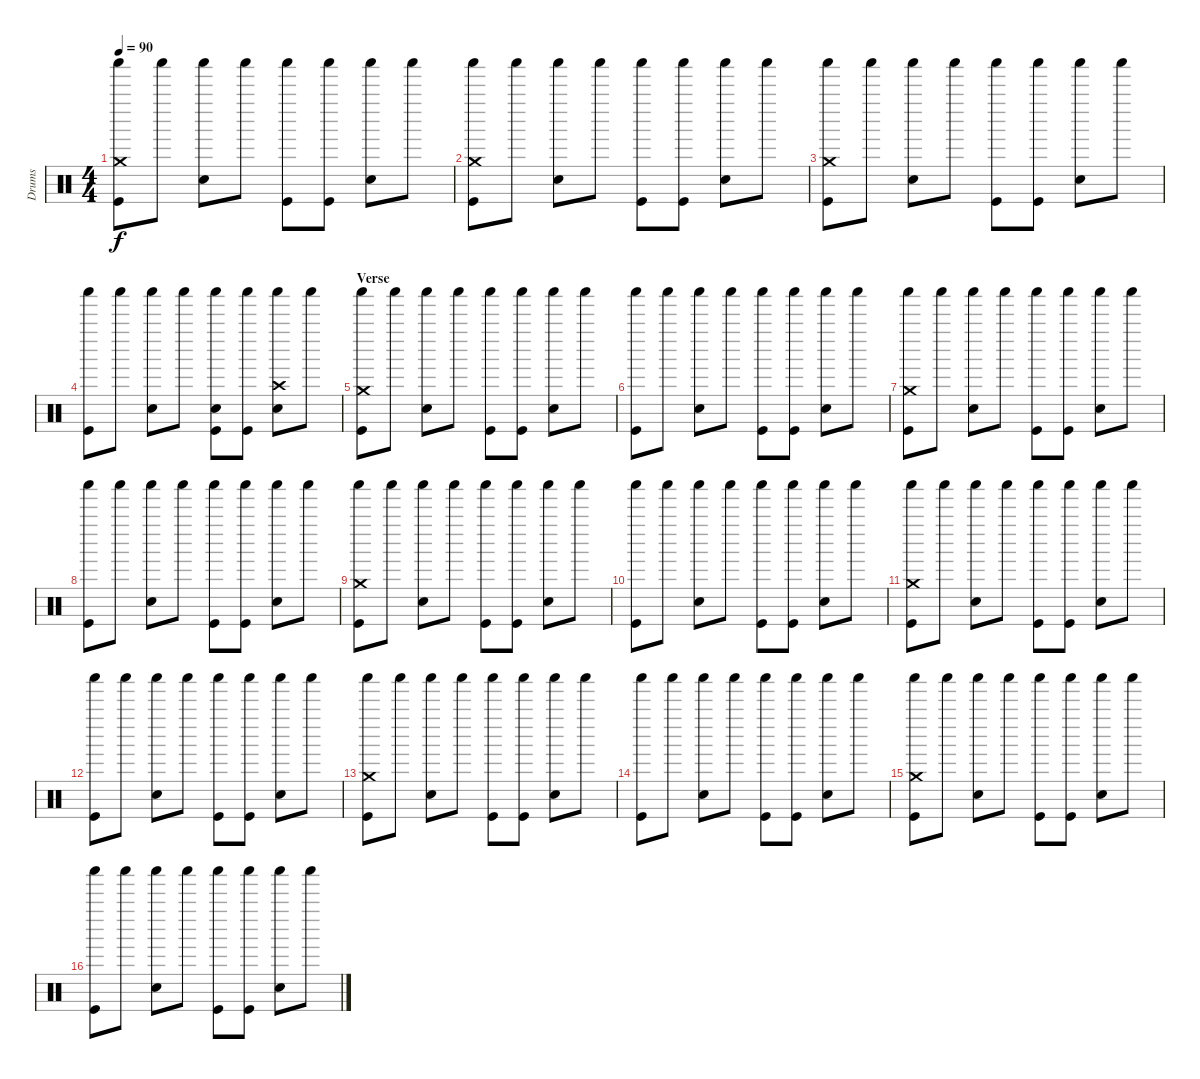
\track ("Drums" "Drums") {instrument percussion}
\staff {score}
\articulation defaults
\ts (4 4)
\tempo 90
\clef neutral
\ks c
("Shaker (hit)" "Crash medium (hit)" "Kick (hit)").8{dy f} "Shaker (hit)".8 ("Shaker (hit)" "Snare (hit) 2").8 "Shaker (hit)".8 ("Shaker (hit)" "Kick (hit)").8 ("Shaker (hit)" "Kick (hit)").8 ("Shaker (hit)" "Snare (hit) 2").8 "Shaker (hit)".8 |
("Shaker (hit)" "Crash medium (hit)" "Kick (hit)").8 "Shaker (hit)".8 ("Shaker (hit)" "Snare (hit) 2").8 "Shaker (hit)".8 ("Shaker (hit)" "Kick (hit)").8 ("Shaker (hit)" "Kick (hit)").8 ("Shaker (hit)" "Snare (hit) 2").8 "Shaker (hit)".8 |
("Shaker (hit)" "Crash medium (hit)" "Kick (hit)").8 "Shaker (hit)".8 ("Shaker (hit)" "Snare (hit) 2").8 "Shaker (hit)".8 ("Shaker (hit)" "Kick (hit)").8 ("Shaker (hit)" "Kick (hit)").8 ("Shaker (hit)" "Snare (hit) 2").8 "Shaker (hit)".8 |
("Shaker (hit)" "Kick (hit)").8 "Shaker (hit)".8 ("Shaker (hit)" "Snare (hit) 2").8 "Shaker (hit)".8 ("Shaker (hit)" "Snare (hit) 2" "Kick (hit)").8 ("Shaker (hit)" "Kick (hit)").8 ("Shaker (hit)" "Crash high (hit)" "Snare (hit) 2").8 "Shaker (hit)".8 |
\section ("" "Verse")
("Shaker (hit)" "Crash medium (hit)" "Kick (hit)").8 "Shaker (hit)".8 ("Shaker (hit)" "Snare (hit) 2").8 "Shaker (hit)".8 ("Shaker (hit)" "Kick (hit)").8 ("Shaker (hit)" "Kick (hit)").8 ("Shaker (hit)" "Snare (hit) 2").8 "Shaker (hit)".8 |
("Shaker (hit)" "Kick (hit)").8 "Shaker (hit)".8 ("Shaker (hit)" "Snare (hit) 2").8 "Shaker (hit)".8 ("Shaker (hit)" "Kick (hit)").8 ("Shaker (hit)" "Kick (hit)").8 ("Shaker (hit)" "Snare (hit) 2").8 "Shaker (hit)".8 |
("Shaker (hit)" "Crash medium (hit)" "Kick (hit)").8 "Shaker (hit)".8 ("Shaker (hit)" "Snare (hit) 2").8 "Shaker (hit)".8 ("Shaker (hit)" "Kick (hit)").8 ("Shaker (hit)" "Kick (hit)").8 ("Shaker (hit)" "Snare (hit) 2").8 "Shaker (hit)".8 |
("Shaker (hit)" "Kick (hit)").8 "Shaker (hit)".8 ("Shaker (hit)" "Snare (hit) 2").8 "Shaker (hit)".8 ("Shaker (hit)" "Kick (hit)").8 ("Shaker (hit)" "Kick (hit)").8 ("Shaker (hit)" "Snare (hit) 2").8 "Shaker (hit)".8 |
("Shaker (hit)" "Crash medium (hit)" "Kick (hit)").8 "Shaker (hit)".8 ("Shaker (hit)" "Snare (hit) 2").8 "Shaker (hit)".8 ("Shaker (hit)" "Kick (hit)").8 ("Shaker (hit)" "Kick (hit)").8 ("Shaker (hit)" "Snare (hit) 2").8 "Shaker (hit)".8 |
("Shaker (hit)" "Kick (hit)").8 "Shaker (hit)".8 ("Shaker (hit)" "Snare (hit) 2").8 "Shaker (hit)".8 ("Shaker (hit)" "Kick (hit)").8 ("Shaker (hit)" "Kick (hit)").8 ("Shaker (hit)" "Snare (hit) 2").8 "Shaker (hit)".8 |
("Shaker (hit)" "Crash medium (hit)" "Kick (hit)").8 "Shaker (hit)".8 ("Shaker (hit)" "Snare (hit) 2").8 "Shaker (hit)".8 ("Shaker (hit)" "Kick (hit)").8 ("Shaker (hit)" "Kick (hit)").8 ("Shaker (hit)" "Snare (hit) 2").8 "Shaker (hit)".8 |
("Shaker (hit)" "Kick (hit)").8 "Shaker (hit)".8 ("Shaker (hit)" "Snare (hit) 2").8 "Shaker (hit)".8 ("Shaker (hit)" "Kick (hit)").8 ("Shaker (hit)" "Kick (hit)").8 ("Shaker (hit)" "Snare (hit) 2").8 "Shaker (hit)".8 |
("Shaker (hit)" "Crash medium (hit)" "Kick (hit)").8 "Shaker (hit)".8 ("Shaker (hit)" "Snare (hit) 2").8 "Shaker (hit)".8 ("Shaker (hit)" "Kick (hit)").8 ("Shaker (hit)" "Kick (hit)").8 ("Shaker (hit)" "Snare (hit) 2").8 "Shaker (hit)".8 |
("Shaker (hit)" "Kick (hit)").8 "Shaker (hit)".8 ("Shaker (hit)" "Snare (hit) 2").8 "Shaker (hit)".8 ("Shaker (hit)" "Kick (hit)").8 ("Shaker (hit)" "Kick (hit)").8 ("Shaker (hit)" "Snare (hit) 2").8 "Shaker (hit)".8 |
("Shaker (hit)" "Crash medium (hit)" "Kick (hit)").8 "Shaker (hit)".8 ("Shaker (hit)" "Snare (hit) 2").8 "Shaker (hit)".8 ("Shaker (hit)" "Kick (hit)").8 ("Shaker (hit)" "Kick (hit)").8 ("Shaker (hit)" "Snare (hit) 2").8 "Shaker (hit)".8 |
("Shaker (hit)" "Kick (hit)").8 "Shaker (hit)".8 ("Shaker (hit)" "Snare (hit) 2").8 "Shaker (hit)".8 ("Shaker (hit)" "Kick (hit)").8 ("Shaker (hit)" "Kick (hit)").8 ("Shaker (hit)" "Snare (hit) 2").8 "Shaker (hit)".8
